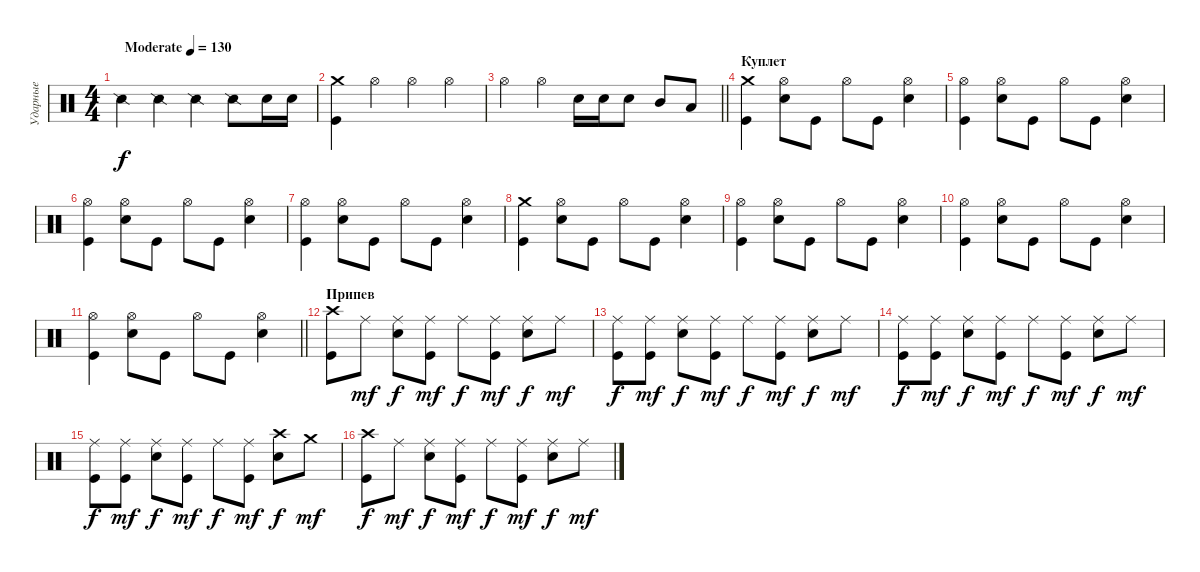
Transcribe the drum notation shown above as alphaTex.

\track ("Ударные" "Ударные") {instrument percussion}
\staff {score}
\articulation defaults
\ts (4 4)
\tempo (130 "Moderate")
\clef neutral
\ks c "Snare (side stick) 2".4{dy f} "Snare (side stick) 2".4 "Snare (side stick) 2".4 "Snare (side stick) 2".8 "Electric Snare (hit)".16 "Electric Snare (hit)".16
|
("Crash medium (hit)" "Kick (hit)").4 "Hi-Hat (open)".4 "Hi-Hat (open)".4 "Hi-Hat (open)".4 |
\barLineRight lightlight "Hi-Hat (open)".4 "Hi-Hat (open)".4 "Electric Snare (hit)".16 "Electric Snare (hit)".16 "Electric Snare (hit)".8 "Mid Tom (hit)".8 "Low Tom (hit)".8
|
\section ("" "Куплет")
("Crash medium (hit)" "Kick (hit)").4 ("Hi-Hat (open)" "Electric Snare (hit)").8 "Kick (hit)".8 "Hi-Hat (open)".8 "Kick (hit)".8 ("Hi-Hat (open)" "Electric Snare (hit)").4 |
("Hi-Hat (open)" "Kick (hit)").4 ("Hi-Hat (open)" "Electric Snare (hit)").8 "Kick (hit)".8 "Hi-Hat (open)".8 "Kick (hit)".8 ("Hi-Hat (open)" "Electric Snare (hit)").4 |
("Hi-Hat (open)" "Kick (hit)").4 ("Hi-Hat (open)" "Electric Snare (hit)").8 "Kick (hit)".8 "Hi-Hat (open)".8 "Kick (hit)".8 ("Hi-Hat (open)" "Electric Snare (hit)").4 |
("Hi-Hat (open)" "Kick (hit)").4 ("Hi-Hat (open)" "Electric Snare (hit)").8 "Kick (hit)".8 "Hi-Hat (open)".8 "Kick (hit)".8 ("Hi-Hat (open)" "Electric Snare (hit)").4 |
("Crash medium (hit)" "Kick (hit)").4 ("Hi-Hat (open)" "Electric Snare (hit)").8 "Kick (hit)".8 "Hi-Hat (open)".8 "Kick (hit)".8 ("Hi-Hat (open)" "Electric Snare (hit)").4 |
("Hi-Hat (open)" "Kick (hit)").4 ("Hi-Hat (open)" "Electric Snare (hit)").8 "Kick (hit)".8 "Hi-Hat (open)".8 "Kick (hit)".8 ("Hi-Hat (open)" "Electric Snare (hit)").4 |
("Hi-Hat (open)" "Kick (hit)").4 ("Hi-Hat (open)" "Electric Snare (hit)").8 "Kick (hit)".8 "Hi-Hat (open)".8 "Kick (hit)".8 ("Hi-Hat (open)" "Electric Snare (hit)").4 |
\barLineRight lightlight
("Hi-Hat (open)" "Kick (hit)").4 ("Hi-Hat (open)" "Electric Snare (hit)").8 "Kick (hit)".8 "Hi-Hat (open)".8 "Kick (hit)".8 ("Hi-Hat (open)" "Electric Snare (hit)").4 |
\section ("" "Припев")
("Crash high (hit)" "Kick (hit)").8 "Ride (middle)".8{dy mf} ("Ride (middle)" "Electric Snare (hit)").8{dy f} ("Ride (middle)" "Kick (hit)").8{dy mf} "Ride (middle)".8{dy f} ("Ride (middle)" "Kick (hit)").8{dy mf} ("Ride (middle)" "Electric Snare (hit)").8{dy f} "Ride (middle)".8{dy mf} |
("Ride (middle)" "Kick (hit)").8{dy f} ("Ride (middle)" "Kick (hit)").8{dy mf} ("Ride (middle)" "Electric Snare (hit)").8{dy f} ("Ride (middle)" "Kick (hit)").8{dy mf} "Ride (middle)".8{dy f} ("Ride (middle)" "Kick (hit)").8{dy mf} ("Ride (middle)" "Electric Snare (hit)").8{dy f} "Ride (middle)".8{dy mf} |
("Ride (middle)" "Kick (hit)").8{dy f} ("Ride (middle)" "Kick (hit)").8{dy mf} ("Ride (middle)" "Electric Snare (hit)").8{dy f} ("Ride (middle)" "Kick (hit)").8{dy mf} "Ride (middle)".8{dy f} ("Ride (middle)" "Kick (hit)").8{dy mf} ("Ride (middle)" "Electric Snare (hit)").8{dy f} "Ride (middle)".8{dy mf} |
("Ride (middle)" "Kick (hit)").8{dy f} ("Ride (middle)" "Kick (hit)").8{dy mf} ("Ride (middle)" "Electric Snare (hit)").8{dy f} ("Ride (middle)" "Kick (hit)").8{dy mf} "Ride (middle)".8{dy f} ("Ride (middle)" "Kick (hit)").8{dy mf} ("Crash high (hit)" "Electric Snare (hit)").8{dy f} "Crash medium (hit)".8{dy mf} |
("Crash high (hit)" "Kick (hit)").8{dy f} "Ride (middle)".8{dy mf} ("Ride (middle)" "Electric Snare (hit)").8{dy f} ("Ride (middle)" "Kick (hit)").8{dy mf} "Ride (middle)".8{dy f} ("Ride (middle)" "Kick (hit)").8{dy mf} ("Ride (middle)" "Electric Snare (hit)").8{dy f} "Ride (middle)".8{dy mf}
